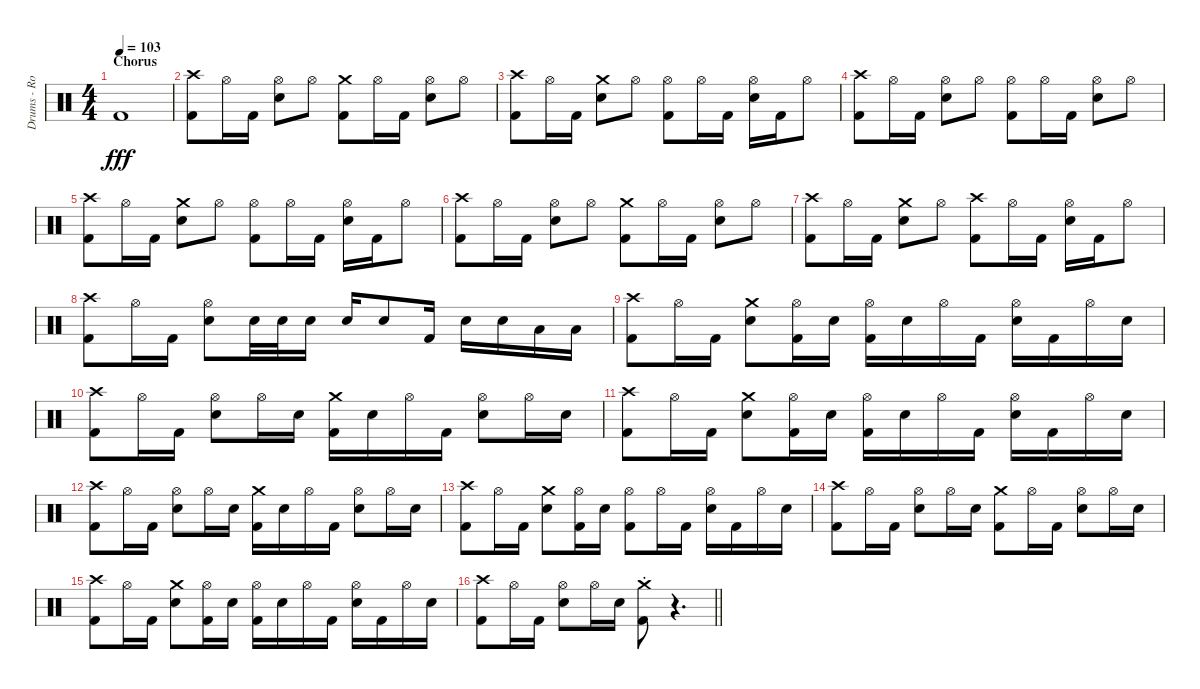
\track ("Drums - Rob Bourdon" "Drums - Ro") {instrument percussion}
\staff {score}
\articulation defaults
\ts (4 4)
\section ("" "Chorus")
\tempo 103
\clef neutral
\ks c "Kick (hit) 2".1{dy fff}
|
("Crash high (hit)" "Kick (hit) 2").8 "Hi-Hat (open)".16 "Kick (hit) 2".16 ("Hi-Hat (open)" "Snare (hit) 2").8 "Hi-Hat (open)".8 ("Crash medium (hit)" "Kick (hit) 2").8 "Hi-Hat (open)".16 "Kick (hit) 2".16 ("Hi-Hat (open)" "Snare (hit) 2").8 "Hi-Hat (open)".8 |
("Crash high (hit)" "Kick (hit) 2").8 "Hi-Hat (open)".16 "Kick (hit) 2".16 ("Crash medium (hit)" "Snare (hit) 2").8 "Hi-Hat (open)".8 ("Hi-Hat (open)" "Kick (hit) 2").8 "Hi-Hat (open)".16 "Kick (hit) 2".16 ("Hi-Hat (open)" "Snare (hit) 2").16 "Kick (hit) 2".16 "Hi-Hat (open)".8 |
("Crash high (hit)" "Kick (hit) 2").8 "Hi-Hat (open)".16 "Kick (hit) 2".16 ("Hi-Hat (open)" "Snare (hit) 2").8 "Hi-Hat (open)".8 ("Hi-Hat (open)" "Kick (hit) 2").8 "Hi-Hat (open)".16 "Kick (hit) 2".16 ("Hi-Hat (open)" "Snare (hit) 2").8 "Hi-Hat (open)".8 |
("Crash high (hit)" "Kick (hit) 2").8 "Hi-Hat (open)".16 "Kick (hit) 2".16 ("Crash medium (hit)" "Snare (hit) 2").8 "Hi-Hat (open)".8 ("Hi-Hat (open)" "Kick (hit) 2").8 "Hi-Hat (open)".16 "Kick (hit) 2".16 ("Hi-Hat (open)" "Snare (hit) 2").16 "Kick (hit) 2".16 "Hi-Hat (open)".8 |
("Crash high (hit)" "Kick (hit) 2").8 "Hi-Hat (open)".16 "Kick (hit) 2".16 ("Hi-Hat (open)" "Snare (hit) 2").8 "Hi-Hat (open)".8 ("Crash medium (hit)" "Kick (hit) 2").8 "Hi-Hat (open)".16 "Kick (hit) 2".16 ("Hi-Hat (open)" "Snare (hit) 2").8 "Hi-Hat (open)".8 |
("Crash high (hit)" "Kick (hit) 2").8 "Hi-Hat (open)".16 "Kick (hit) 2".16 ("Crash medium (hit)" "Snare (hit) 2").8 "Hi-Hat (open)".8 ("Crash high (hit)" "Kick (hit) 2").8 "Hi-Hat (open)".16 "Kick (hit) 2".16 ("Hi-Hat (open)" "Snare (hit) 2").16 "Kick (hit) 2".16 "Hi-Hat (open)".8 |
("Crash high (hit)" "Kick (hit) 2").8 "Hi-Hat (open)".16 "Kick (hit) 2".16 ("Hi-Hat (open)" "Snare (hit) 2").8 "Snare (hit) 2".32 "Snare (hit) 2".32 "Snare (hit) 2".16 "Snare (hit) 2".16 "Snare (hit) 2".8 "Kick (hit) 2".16 "Snare (hit) 2".16 "Snare (hit) 2".16 "Low Tom (hit)".16 "Low Tom (hit)".16 |
("Crash high (hit)" "Kick (hit) 2").8 "Hi-Hat (open)".16 "Kick (hit) 2".16 ("Crash medium (hit)" "Snare (hit) 2").8 ("Hi-Hat (open)" "Kick (hit) 2").16 "Snare (hit) 2".16 ("Hi-Hat (open)" "Kick (hit) 2").16 "Snare (hit) 2".16 "Hi-Hat (open)".16 "Kick (hit) 2".16 ("Hi-Hat (open)" "Snare (hit) 2").16 "Kick (hit) 2".16 "Hi-Hat (open)".16 "Snare (hit) 2".16 |
("Crash high (hit)" "Kick (hit) 2").8 "Hi-Hat (open)".16 "Kick (hit) 2".16 ("Hi-Hat (open)" "Snare (hit) 2").8 "Hi-Hat (open)".16 "Snare (hit) 2".16 ("Crash medium (hit)" "Kick (hit) 2").16 "Snare (hit) 2".16 "Hi-Hat (open)".16 "Kick (hit) 2".16 ("Hi-Hat (open)" "Snare (hit) 2").8 "Hi-Hat (open)".16 "Snare (hit) 2".16 |
("Crash high (hit)" "Kick (hit) 2").8 "Hi-Hat (open)".16 "Kick (hit) 2".16 ("Crash medium (hit)" "Snare (hit) 2").8 ("Hi-Hat (open)" "Kick (hit) 2").16 "Snare (hit) 2".16 ("Hi-Hat (open)" "Kick (hit) 2").16 "Snare (hit) 2".16 "Hi-Hat (open)".16 "Kick (hit) 2".16 ("Hi-Hat (open)" "Snare (hit) 2").16 "Kick (hit) 2".16 "Hi-Hat (open)".16 "Snare (hit) 2".16 |
("Crash high (hit)" "Kick (hit) 2").8 "Hi-Hat (open)".16 "Kick (hit) 2".16 ("Hi-Hat (open)" "Snare (hit) 2").8 "Hi-Hat (open)".16 "Snare (hit) 2".16 ("Crash medium (hit)" "Kick (hit) 2").16 "Snare (hit) 2".16 "Hi-Hat (open)".16 "Kick (hit) 2".16 ("Hi-Hat (open)" "Snare (hit) 2").8 "Hi-Hat (open)".16 "Snare (hit) 2".16 |
("Crash high (hit)" "Kick (hit) 2").8 "Hi-Hat (open)".16 "Kick (hit) 2".16 ("Crash medium (hit)" "Snare (hit) 2").8 ("Hi-Hat (open)" "Kick (hit) 2").16 "Snare (hit) 2".16 ("Hi-Hat (open)" "Kick (hit) 2").8 "Hi-Hat (open)".16 "Kick (hit) 2".16 ("Hi-Hat (open)" "Snare (hit) 2").16 "Kick (hit) 2".16 "Hi-Hat (open)".16 "Snare (hit) 2".16 |
("Crash high (hit)" "Kick (hit) 2").8 "Hi-Hat (open)".16 "Kick (hit) 2".16 ("Hi-Hat (open)" "Snare (hit) 2").8 "Hi-Hat (open)".16 "Snare (hit) 2".16 ("Crash medium (hit)" "Kick (hit) 2").8 "Hi-Hat (open)".16 "Kick (hit) 2".16 ("Hi-Hat (open)" "Snare (hit) 2").8 "Hi-Hat (open)".16 "Snare (hit) 2".16 |
("Crash high (hit)" "Kick (hit) 2").8 "Hi-Hat (open)".16 "Kick (hit) 2".16 ("Crash medium (hit)" "Snare (hit) 2").8 ("Hi-Hat (open)" "Kick (hit) 2").16 "Snare (hit) 2".16 ("Hi-Hat (open)" "Kick (hit) 2").16 "Snare (hit) 2".16 "Hi-Hat (open)".16 "Kick (hit) 2".16 ("Hi-Hat (open)" "Snare (hit) 2").16 "Kick (hit) 2".16 "Hi-Hat (open)".16 "Snare (hit) 2".16 |
\barLineRight lightlight
("Crash high (hit)" "Kick (hit) 2").8 "Hi-Hat (open)".16 "Kick (hit) 2".16 ("Hi-Hat (open)" "Snare (hit) 2").8 "Hi-Hat (open)".16 "Snare (hit) 2".16 ("Crash medium (hit)"{st} "Kick (hit) 2"{st}).8 r.4{d}
